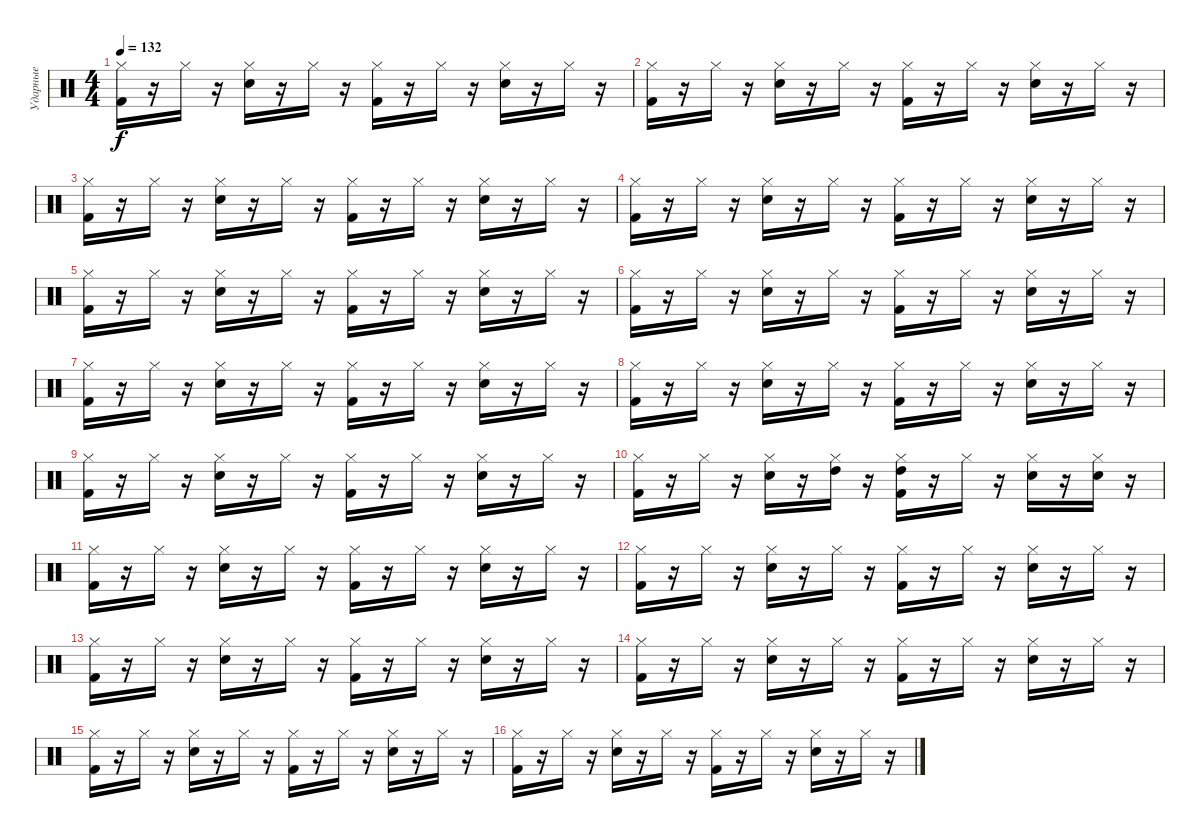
\track ("Ударные" "Ударные") {instrument percussion}
\staff {score}
\articulation defaults
\ts (4 4)
\tempo 132
\clef neutral
\ks c
("Kick (hit) 2" "Hi-Hat (closed)").16{dy f} r.16 "Hi-Hat (closed)".16 r.16 ("Snare (hit) 2" "Hi-Hat (closed)").16 r.16 "Hi-Hat (closed)".16 r.16 ("Kick (hit) 2" "Hi-Hat (closed)").16 r.16 "Hi-Hat (closed)".16 r.16 ("Snare (hit) 2" "Hi-Hat (closed)").16 r.16 "Hi-Hat (closed)".16 r.16 |
("Kick (hit) 2" "Hi-Hat (closed)").16 r.16 "Hi-Hat (closed)".16 r.16 ("Snare (hit) 2" "Hi-Hat (closed)").16 r.16 "Hi-Hat (closed)".16 r.16 ("Kick (hit) 2" "Hi-Hat (closed)").16 r.16 "Hi-Hat (closed)".16 r.16 ("Snare (hit) 2" "Hi-Hat (closed)").16 r.16 "Hi-Hat (closed)".16 r.16 |
("Kick (hit) 2" "Hi-Hat (closed)").16 r.16 "Hi-Hat (closed)".16 r.16 ("Snare (hit) 2" "Hi-Hat (closed)").16 r.16 "Hi-Hat (closed)".16 r.16 ("Kick (hit) 2" "Hi-Hat (closed)").16 r.16 "Hi-Hat (closed)".16 r.16 ("Snare (hit) 2" "Hi-Hat (closed)").16 r.16 "Hi-Hat (closed)".16 r.16 |
("Kick (hit) 2" "Hi-Hat (closed)").16 r.16 "Hi-Hat (closed)".16 r.16 ("Snare (hit) 2" "Hi-Hat (closed)").16 r.16 "Hi-Hat (closed)".16 r.16 ("Kick (hit) 2" "Hi-Hat (closed)").16 r.16 "Hi-Hat (closed)".16 r.16 ("Snare (hit) 2" "Hi-Hat (closed)").16 r.16 "Hi-Hat (closed)".16 r.16 |
("Kick (hit) 2" "Hi-Hat (closed)").16 r.16 "Hi-Hat (closed)".16 r.16 ("Snare (hit) 2" "Hi-Hat (closed)").16 r.16 "Hi-Hat (closed)".16 r.16 ("Kick (hit) 2" "Hi-Hat (closed)").16 r.16 "Hi-Hat (closed)".16 r.16 ("Snare (hit) 2" "Hi-Hat (closed)").16 r.16 "Hi-Hat (closed)".16 r.16 |
("Kick (hit) 2" "Hi-Hat (closed)").16 r.16 "Hi-Hat (closed)".16 r.16 ("Snare (hit) 2" "Hi-Hat (closed)").16 r.16 "Hi-Hat (closed)".16 r.16 ("Kick (hit) 2" "Hi-Hat (closed)").16 r.16 "Hi-Hat (closed)".16 r.16 ("Snare (hit) 2" "Hi-Hat (closed)").16 r.16 "Hi-Hat (closed)".16 r.16 |
("Kick (hit) 2" "Hi-Hat (closed)").16 r.16 "Hi-Hat (closed)".16 r.16 ("Snare (hit) 2" "Hi-Hat (closed)").16 r.16 "Hi-Hat (closed)".16 r.16 ("Kick (hit) 2" "Hi-Hat (closed)").16 r.16 "Hi-Hat (closed)".16 r.16 ("Snare (hit) 2" "Hi-Hat (closed)").16 r.16 "Hi-Hat (closed)".16 r.16 |
("Kick (hit) 2" "Hi-Hat (closed)").16 r.16 "Hi-Hat (closed)".16 r.16 ("Snare (hit) 2" "Hi-Hat (closed)").16 r.16 "Hi-Hat (closed)".16 r.16 ("Kick (hit) 2" "Hi-Hat (closed)").16 r.16 "Hi-Hat (closed)".16 r.16 ("Snare (hit) 2" "Hi-Hat (closed)").16 r.16 "Hi-Hat (closed)".16 r.16 |
("Kick (hit) 2" "Hi-Hat (closed)").16 r.16 "Hi-Hat (closed)".16 r.16 ("Snare (hit) 2" "Hi-Hat (closed)").16 r.16 "Hi-Hat (closed)".16 r.16 ("Kick (hit) 2" "Hi-Hat (closed)").16 r.16 "Hi-Hat (closed)".16 r.16 ("Snare (hit) 2" "Hi-Hat (closed)").16 r.16 "Hi-Hat (closed)".16 r.16 |
("Kick (hit) 2" "Hi-Hat (closed)").16 r.16 "Hi-Hat (closed)".16 r.16 ("Snare (hit) 2" "Hi-Hat (closed)").16 r.16 ("High Tom (hit)" "Hi-Hat (closed)").16 r.16 ("Kick (hit) 2" "High Tom (hit)" "Hi-Hat (closed)").16 r.16 "Hi-Hat (closed)".16 r.16 ("Snare (hit) 2" "Hi-Hat (closed)").16 r.16 ("Snare (hit) 2" "Hi-Hat (closed)").16 r.16 |
("Kick (hit) 2" "Hi-Hat (closed)").16 r.16 "Hi-Hat (closed)".16 r.16 ("Snare (hit) 2" "Hi-Hat (closed)").16 r.16 "Hi-Hat (closed)".16 r.16 ("Kick (hit) 2" "Hi-Hat (closed)").16 r.16 "Hi-Hat (closed)".16 r.16 ("Snare (hit) 2" "Hi-Hat (closed)").16 r.16 "Hi-Hat (closed)".16 r.16 |
("Kick (hit) 2" "Hi-Hat (closed)").16 r.16 "Hi-Hat (closed)".16 r.16 ("Snare (hit) 2" "Hi-Hat (closed)").16 r.16 "Hi-Hat (closed)".16 r.16 ("Kick (hit) 2" "Hi-Hat (closed)").16 r.16 "Hi-Hat (closed)".16 r.16 ("Snare (hit) 2" "Hi-Hat (closed)").16 r.16 "Hi-Hat (closed)".16 r.16 |
("Kick (hit) 2" "Hi-Hat (closed)").16 r.16 "Hi-Hat (closed)".16 r.16 ("Snare (hit) 2" "Hi-Hat (closed)").16 r.16 "Hi-Hat (closed)".16 r.16 ("Kick (hit) 2" "Hi-Hat (closed)").16 r.16 "Hi-Hat (closed)".16 r.16 ("Snare (hit) 2" "Hi-Hat (closed)").16 r.16 "Hi-Hat (closed)".16 r.16 |
("Kick (hit) 2" "Hi-Hat (closed)").16 r.16 "Hi-Hat (closed)".16 r.16 ("Snare (hit) 2" "Hi-Hat (closed)").16 r.16 "Hi-Hat (closed)".16 r.16 ("Kick (hit) 2" "Hi-Hat (closed)").16 r.16 "Hi-Hat (closed)".16 r.16 ("Snare (hit) 2" "Hi-Hat (closed)").16 r.16 "Hi-Hat (closed)".16 r.16 |
("Kick (hit) 2" "Hi-Hat (closed)").16 r.16 "Hi-Hat (closed)".16 r.16 ("Snare (hit) 2" "Hi-Hat (closed)").16 r.16 "Hi-Hat (closed)".16 r.16 ("Kick (hit) 2" "Hi-Hat (closed)").16 r.16 "Hi-Hat (closed)".16 r.16 ("Snare (hit) 2" "Hi-Hat (closed)").16 r.16 "Hi-Hat (closed)".16 r.16 |
("Kick (hit) 2" "Hi-Hat (closed)").16 r.16 "Hi-Hat (closed)".16 r.16 ("Snare (hit) 2" "Hi-Hat (closed)").16 r.16 "Hi-Hat (closed)".16 r.16 ("Kick (hit) 2" "Hi-Hat (closed)").16 r.16 "Hi-Hat (closed)".16 r.16 ("Snare (hit) 2" "Hi-Hat (closed)").16 r.16 "Hi-Hat (closed)".16 r.16
